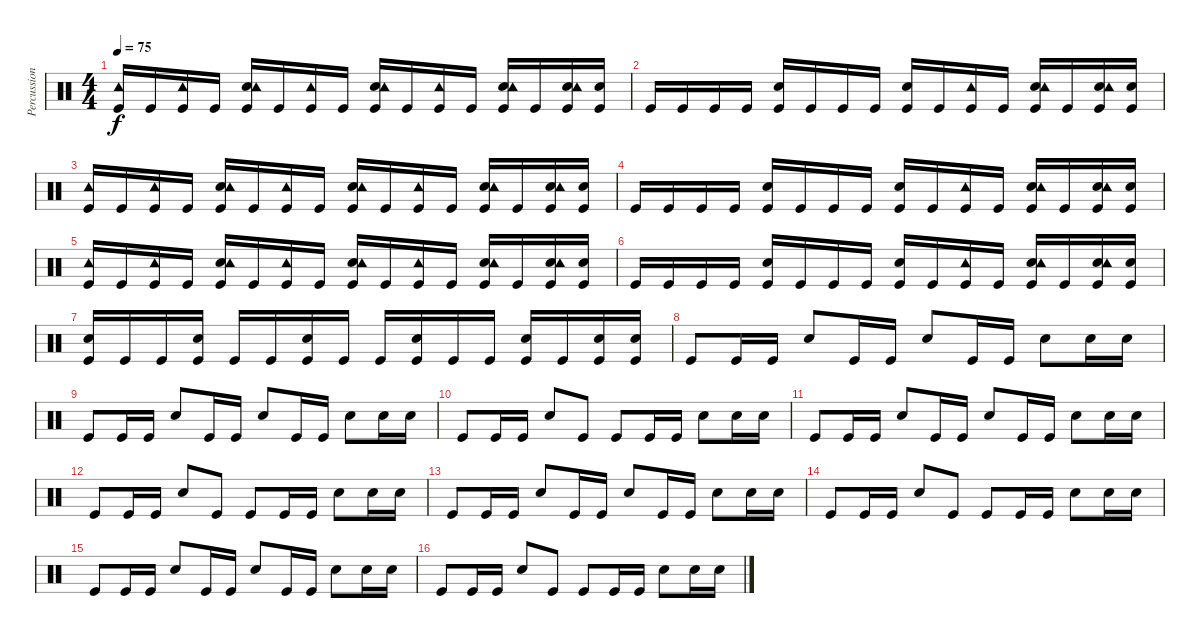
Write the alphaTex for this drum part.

\track ("Percussioni" "Percussion") {instrument percussion}
\staff {score}
\articulation defaults
\ts (4 4)
\tempo 75
\clef neutral
\ks c
("Kick (hit)" "Tambourine (hit)").16{dy f} "Kick (hit)".16 ("Kick (hit)" "Tambourine (hit)").16 "Kick (hit)".16 ("Snare (hit) 2" "Kick (hit)" "Tambourine (hit)").16 "Kick (hit)".16 ("Kick (hit)" "Tambourine (hit)").16 "Kick (hit)".16 ("Snare (hit) 2" "Kick (hit)" "Tambourine (hit)").16 "Kick (hit)".16 ("Kick (hit)" "Tambourine (hit)").16 "Kick (hit)".16 ("Snare (hit) 2" "Kick (hit)" "Tambourine (hit)").16 "Kick (hit)".16 ("Snare (hit) 2" "Kick (hit)" "Tambourine (hit)").16 ("Snare (hit) 2" "Kick (hit)").16 |
"Kick (hit)".16 "Kick (hit)".16 "Kick (hit)".16 "Kick (hit)".16 ("Snare (hit) 2" "Kick (hit)").16 "Kick (hit)".16 "Kick (hit)".16 "Kick (hit)".16 ("Snare (hit) 2" "Kick (hit)").16 "Kick (hit)".16 ("Kick (hit)" "Tambourine (hit)").16 "Kick (hit)".16 ("Snare (hit) 2" "Kick (hit)" "Tambourine (hit)").16 "Kick (hit)".16 ("Snare (hit) 2" "Kick (hit)" "Tambourine (hit)").16 ("Snare (hit) 2" "Kick (hit)").16 |
("Kick (hit)" "Tambourine (hit)").16 "Kick (hit)".16 ("Kick (hit)" "Tambourine (hit)").16 "Kick (hit)".16 ("Snare (hit) 2" "Kick (hit)" "Tambourine (hit)").16 "Kick (hit)".16 ("Kick (hit)" "Tambourine (hit)").16 "Kick (hit)".16 ("Snare (hit) 2" "Kick (hit)" "Tambourine (hit)").16 "Kick (hit)".16 ("Kick (hit)" "Tambourine (hit)").16 "Kick (hit)".16 ("Snare (hit) 2" "Kick (hit)" "Tambourine (hit)").16 "Kick (hit)".16 ("Snare (hit) 2" "Kick (hit)" "Tambourine (hit)").16 ("Snare (hit) 2" "Kick (hit)").16 |
"Kick (hit)".16 "Kick (hit)".16 "Kick (hit)".16 "Kick (hit)".16 ("Snare (hit) 2" "Kick (hit)").16 "Kick (hit)".16 "Kick (hit)".16 "Kick (hit)".16 ("Snare (hit) 2" "Kick (hit)").16 "Kick (hit)".16 ("Kick (hit)" "Tambourine (hit)").16 "Kick (hit)".16 ("Snare (hit) 2" "Kick (hit)" "Tambourine (hit)").16 "Kick (hit)".16 ("Snare (hit) 2" "Kick (hit)" "Tambourine (hit)").16 ("Snare (hit) 2" "Kick (hit)").16 |
("Kick (hit)" "Tambourine (hit)").16 "Kick (hit)".16 ("Kick (hit)" "Tambourine (hit)").16 "Kick (hit)".16 ("Snare (hit) 2" "Kick (hit)" "Tambourine (hit)").16 "Kick (hit)".16 ("Kick (hit)" "Tambourine (hit)").16 "Kick (hit)".16 ("Snare (hit) 2" "Kick (hit)" "Tambourine (hit)").16 "Kick (hit)".16 ("Kick (hit)" "Tambourine (hit)").16 "Kick (hit)".16 ("Snare (hit) 2" "Kick (hit)" "Tambourine (hit)").16 "Kick (hit)".16 ("Snare (hit) 2" "Kick (hit)" "Tambourine (hit)").16 ("Snare (hit) 2" "Kick (hit)").16 |
"Kick (hit)".16 "Kick (hit)".16 "Kick (hit)".16 "Kick (hit)".16 ("Snare (hit) 2" "Kick (hit)").16 "Kick (hit)".16 "Kick (hit)".16 "Kick (hit)".16 ("Snare (hit) 2" "Kick (hit)").16 "Kick (hit)".16 ("Kick (hit)" "Tambourine (hit)").16 "Kick (hit)".16 ("Snare (hit) 2" "Kick (hit)" "Tambourine (hit)").16 "Kick (hit)".16 ("Snare (hit) 2" "Kick (hit)" "Tambourine (hit)").16 ("Snare (hit) 2" "Kick (hit)").16 |
("Kick (hit)" "Snare (hit) 2").16 "Kick (hit)".16 "Kick (hit)".16 ("Kick (hit)" "Snare (hit) 2").16 "Kick (hit)".16 "Kick (hit)".16 ("Kick (hit)" "Snare (hit) 2").16 "Kick (hit)".16 "Kick (hit)".16 ("Kick (hit)" "Snare (hit) 2").16 "Kick (hit)".16 "Kick (hit)".16 ("Kick (hit)" "Snare (hit) 2").16 "Kick (hit)".16 ("Kick (hit)" "Snare (hit) 2").16 ("Kick (hit)" "Snare (hit) 2").16 |
"Kick (hit)".8 "Kick (hit)".16 "Kick (hit)".16 "Snare (hit) 2".8 "Kick (hit)".16 "Kick (hit)".16 "Snare (hit) 2".8 "Kick (hit)".16 "Kick (hit)".16 "Snare (hit) 2".8 "Snare (hit) 2".16 "Snare (hit) 2".16 |
"Kick (hit)".8 "Kick (hit)".16 "Kick (hit)".16 "Snare (hit) 2".8 "Kick (hit)".16 "Kick (hit)".16 "Snare (hit) 2".8 "Kick (hit)".16 "Kick (hit)".16 "Snare (hit) 2".8 "Snare (hit) 2".16 "Snare (hit) 2".16 |
"Kick (hit)".8 "Kick (hit)".16 "Kick (hit)".16 "Snare (hit) 2".8 "Kick (hit)".8 "Kick (hit)".8 "Kick (hit)".16 "Kick (hit)".16 "Snare (hit) 2".8 "Snare (hit) 2".16 "Snare (hit) 2".16 |
"Kick (hit)".8 "Kick (hit)".16 "Kick (hit)".16 "Snare (hit) 2".8 "Kick (hit)".16 "Kick (hit)".16 "Snare (hit) 2".8 "Kick (hit)".16 "Kick (hit)".16 "Snare (hit) 2".8 "Snare (hit) 2".16 "Snare (hit) 2".16 |
"Kick (hit)".8 "Kick (hit)".16 "Kick (hit)".16 "Snare (hit) 2".8 "Kick (hit)".8 "Kick (hit)".8 "Kick (hit)".16 "Kick (hit)".16 "Snare (hit) 2".8 "Snare (hit) 2".16 "Snare (hit) 2".16 |
"Kick (hit)".8 "Kick (hit)".16 "Kick (hit)".16 "Snare (hit) 2".8 "Kick (hit)".16 "Kick (hit)".16 "Snare (hit) 2".8 "Kick (hit)".16 "Kick (hit)".16 "Snare (hit) 2".8 "Snare (hit) 2".16 "Snare (hit) 2".16 |
"Kick (hit)".8 "Kick (hit)".16 "Kick (hit)".16 "Snare (hit) 2".8 "Kick (hit)".8 "Kick (hit)".8 "Kick (hit)".16 "Kick (hit)".16 "Snare (hit) 2".8 "Snare (hit) 2".16 "Snare (hit) 2".16 |
"Kick (hit)".8 "Kick (hit)".16 "Kick (hit)".16 "Snare (hit) 2".8 "Kick (hit)".16 "Kick (hit)".16 "Snare (hit) 2".8 "Kick (hit)".16 "Kick (hit)".16 "Snare (hit) 2".8 "Snare (hit) 2".16 "Snare (hit) 2".16 |
"Kick (hit)".8 "Kick (hit)".16 "Kick (hit)".16 "Snare (hit) 2".8 "Kick (hit)".8 "Kick (hit)".8 "Kick (hit)".16 "Kick (hit)".16 "Snare (hit) 2".8 "Snare (hit) 2".16 "Snare (hit) 2".16
